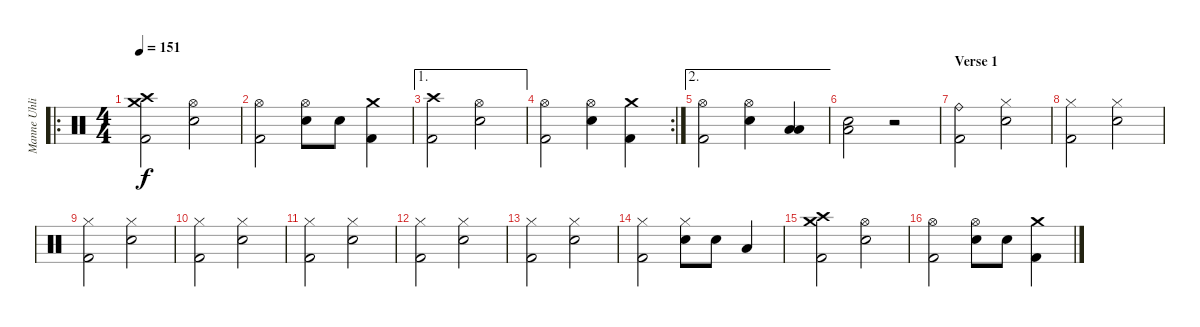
\track ("Manne Uhlig" "Manne Uhli") {instrument percussion}
\staff {score}
\articulation defaults
\ro
\ts (4 4)
\tempo 151
\clef neutral
\ks c
("Crash high (hit)" "Crash medium (hit)" "Kick (hit) 2").2{dy f} ("Hi-Hat (open)" "Snare (hit) 2").2 |
("Hi-Hat (open)" "Kick (hit) 2").2 ("Hi-Hat (open)" "Snare (hit) 2").8 "Snare (hit) 2".8 ("Crash medium (hit)" "Kick (hit) 2").4 |
\ae 1
("Crash high (hit)" "Kick (hit) 2").2 ("Hi-Hat (open)" "Snare (hit) 2").2 |
\rc 2
("Hi-Hat (open)" "Kick (hit) 2").2 ("Hi-Hat (open)" "Snare (hit) 2").4 ("Crash medium (hit)" "Kick (hit) 2").4 |
\ae 2
("Hi-Hat (open)" "Kick (hit) 2").2 ("Hi-Hat (open)" "Snare (hit) 2").4 ("Low Tom (hit)" "Low Floor Tom (hit)").4 |
("Snare (hit) 2" "Low Floor Tom (hit)").2 r.2 |
\section ("" "Verse 1")
("Ride (bell)" "Kick (hit) 2").2 ("Hi-Hat (closed)" "Snare (hit) 2").2 |
("Hi-Hat (closed)" "Kick (hit) 2").2 ("Hi-Hat (closed)" "Snare (hit) 2").2 |
("Hi-Hat (closed)" "Kick (hit) 2").2 ("Hi-Hat (closed)" "Snare (hit) 2").2 |
("Hi-Hat (closed)" "Kick (hit) 2").2 ("Hi-Hat (closed)" "Snare (hit) 2").2 |
("Hi-Hat (closed)" "Kick (hit) 2").2 ("Hi-Hat (closed)" "Snare (hit) 2").2 |
("Hi-Hat (closed)" "Kick (hit) 2").2 ("Hi-Hat (closed)" "Snare (hit) 2").2 |
("Hi-Hat (closed)" "Kick (hit) 2").2 ("Hi-Hat (closed)" "Snare (hit) 2").2 |
("Hi-Hat (closed)" "Kick (hit) 2").2 ("Hi-Hat (closed)" "Snare (hit) 2").8 "Snare (hit) 2".8 "Low Tom (hit)".4 |
("Crash high (hit)" "Crash medium (hit)" "Kick (hit) 2").2 ("Hi-Hat (open)" "Snare (hit) 2").2 |
("Hi-Hat (open)" "Kick (hit) 2").2 ("Hi-Hat (open)" "Snare (hit) 2").8 "Snare (hit) 2".8 ("Crash medium (hit)" "Kick (hit) 2").4
